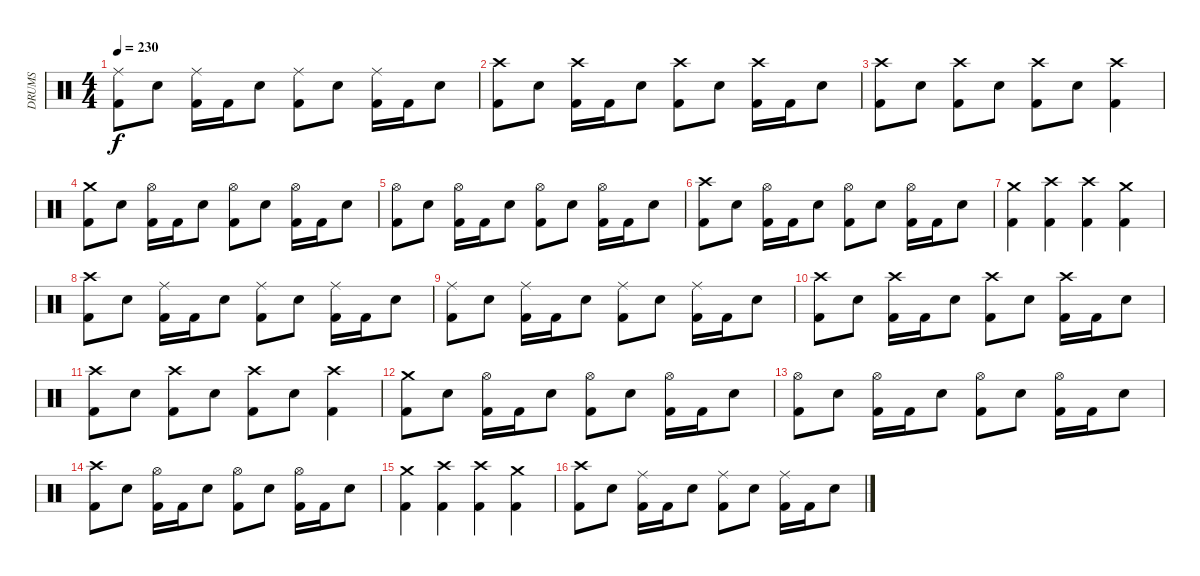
\track ("DRUMS" "DRUMS") {instrument percussion}
\staff {score}
\articulation defaults
\ts (4 4)
\tempo 230
\clef neutral
\ks c
("Kick (hit) 2" "Ride (middle)").8{dy f} "Snare (hit) 2".8 ("Kick (hit) 2" "Ride (middle)").16 "Kick (hit) 2".16 "Snare (hit) 2".8 ("Kick (hit) 2" "Ride (middle)").8 "Snare (hit) 2".8 ("Kick (hit) 2" "Ride (middle)").16 "Kick (hit) 2".16 "Snare (hit) 2".8 |
("Kick (hit) 2" "Crash high (hit)").8 "Snare (hit) 2".8 ("Kick (hit) 2" "Crash high (hit)").16 "Kick (hit) 2".16 "Snare (hit) 2".8 ("Kick (hit) 2" "Crash high (hit)").8 "Snare (hit) 2".8 ("Kick (hit) 2" "Crash high (hit)").16 "Kick (hit) 2".16 "Snare (hit) 2".8 |
("Kick (hit) 2" "Crash high (hit)").8 "Snare (hit) 2".8 ("Kick (hit) 2" "Crash high (hit)").8 "Snare (hit) 2".8 ("Kick (hit) 2" "Crash high (hit)").8 "Snare (hit) 2".8 ("Kick (hit) 2" "Crash high (hit)").4 |
("Kick (hit) 2" "Crash medium (hit)").8 "Snare (hit) 2".8 ("Kick (hit) 2" "Hi-Hat (open)").16 "Kick (hit) 2".16 "Snare (hit) 2".8 ("Kick (hit) 2" "Hi-Hat (open)").8 "Snare (hit) 2".8 ("Kick (hit) 2" "Hi-Hat (open)").16 "Kick (hit) 2".16 "Snare (hit) 2".8 |
("Kick (hit) 2" "Hi-Hat (open)").8 "Snare (hit) 2".8 ("Kick (hit) 2" "Hi-Hat (open)").16 "Kick (hit) 2".16 "Snare (hit) 2".8 ("Kick (hit) 2" "Hi-Hat (open)").8 "Snare (hit) 2".8 ("Kick (hit) 2" "Hi-Hat (open)").16 "Kick (hit) 2".16 "Snare (hit) 2".8 |
("Kick (hit) 2" "Crash high (hit)").8 "Snare (hit) 2".8 ("Kick (hit) 2" "Hi-Hat (open)").16 "Kick (hit) 2".16 "Snare (hit) 2".8 ("Kick (hit) 2" "Hi-Hat (open)").8 "Snare (hit) 2".8 ("Kick (hit) 2" "Hi-Hat (open)").16 "Kick (hit) 2".16 "Snare (hit) 2".8 |
("Kick (hit) 2" "Crash medium (hit)").4 ("Kick (hit) 2" "Crash high (hit)").4 ("Kick (hit) 2" "Crash high (hit)").4 ("Kick (hit) 2" "Crash medium (hit)").4 |
("Kick (hit) 2" "Crash high (hit)").8 "Snare (hit) 2".8 ("Kick (hit) 2" "Ride (middle)").16 "Kick (hit) 2".16 "Snare (hit) 2".8 ("Kick (hit) 2" "Ride (middle)").8 "Snare (hit) 2".8 ("Kick (hit) 2" "Ride (middle)").16 "Kick (hit) 2".16 "Snare (hit) 2".8 |
("Kick (hit) 2" "Ride (middle)").8 "Snare (hit) 2".8 ("Kick (hit) 2" "Ride (middle)").16 "Kick (hit) 2".16 "Snare (hit) 2".8 ("Kick (hit) 2" "Ride (middle)").8 "Snare (hit) 2".8 ("Kick (hit) 2" "Ride (middle)").16 "Kick (hit) 2".16 "Snare (hit) 2".8 |
("Kick (hit) 2" "Crash high (hit)").8 "Snare (hit) 2".8 ("Kick (hit) 2" "Crash high (hit)").16 "Kick (hit) 2".16 "Snare (hit) 2".8 ("Kick (hit) 2" "Crash high (hit)").8 "Snare (hit) 2".8 ("Kick (hit) 2" "Crash high (hit)").16 "Kick (hit) 2".16 "Snare (hit) 2".8 |
("Kick (hit) 2" "Crash high (hit)").8 "Snare (hit) 2".8 ("Kick (hit) 2" "Crash high (hit)").8 "Snare (hit) 2".8 ("Kick (hit) 2" "Crash high (hit)").8 "Snare (hit) 2".8 ("Kick (hit) 2" "Crash high (hit)").4 |
("Kick (hit) 2" "Crash medium (hit)").8 "Snare (hit) 2".8 ("Kick (hit) 2" "Hi-Hat (open)").16 "Kick (hit) 2".16 "Snare (hit) 2".8 ("Kick (hit) 2" "Hi-Hat (open)").8 "Snare (hit) 2".8 ("Kick (hit) 2" "Hi-Hat (open)").16 "Kick (hit) 2".16 "Snare (hit) 2".8 |
("Kick (hit) 2" "Hi-Hat (open)").8 "Snare (hit) 2".8 ("Kick (hit) 2" "Hi-Hat (open)").16 "Kick (hit) 2".16 "Snare (hit) 2".8 ("Kick (hit) 2" "Hi-Hat (open)").8 "Snare (hit) 2".8 ("Kick (hit) 2" "Hi-Hat (open)").16 "Kick (hit) 2".16 "Snare (hit) 2".8 |
("Kick (hit) 2" "Crash high (hit)").8 "Snare (hit) 2".8 ("Kick (hit) 2" "Hi-Hat (open)").16 "Kick (hit) 2".16 "Snare (hit) 2".8 ("Kick (hit) 2" "Hi-Hat (open)").8 "Snare (hit) 2".8 ("Kick (hit) 2" "Hi-Hat (open)").16 "Kick (hit) 2".16 "Snare (hit) 2".8 |
("Kick (hit) 2" "Crash medium (hit)").4 ("Kick (hit) 2" "Crash high (hit)").4 ("Kick (hit) 2" "Crash high (hit)").4 ("Kick (hit) 2" "Crash medium (hit)").4 |
("Kick (hit) 2" "Crash high (hit)").8 "Snare (hit) 2".8 ("Kick (hit) 2" "Ride (middle)").16 "Kick (hit) 2".16 "Snare (hit) 2".8 ("Kick (hit) 2" "Ride (middle)").8 "Snare (hit) 2".8 ("Kick (hit) 2" "Ride (middle)").16 "Kick (hit) 2".16 "Snare (hit) 2".8
